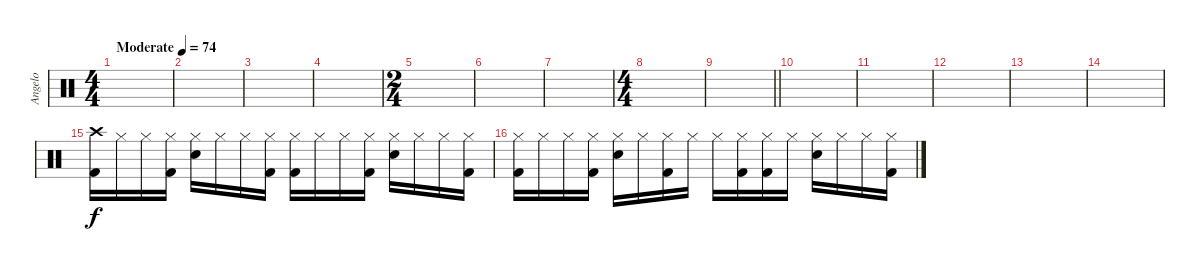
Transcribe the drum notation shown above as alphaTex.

\track ("Angelo" "Angelo") {instrument percussion}
\staff {score}
\articulation defaults
\ts (4 4)
\tempo (74 "Moderate")
\clef neutral
\ks c
|
|
|
|
\ts (2 4)
|
|
|
\ts (4 4)
|
\barLineRight lightlight
|
|
|
|
|
|
("Crash high (hit)" "Kick (hit) 2").16 "Hi-Hat (closed)".16 "Hi-Hat (closed)".16 ("Hi-Hat (closed)" "Kick (hit) 2").16 ("Hi-Hat (closed)" "Snare (hit) 2").16 "Hi-Hat (closed)".16 "Hi-Hat (closed)".16 ("Hi-Hat (closed)" "Kick (hit) 2").16 ("Hi-Hat (closed)" "Kick (hit) 2").16 "Hi-Hat (closed)".16 "Hi-Hat (closed)".16 ("Hi-Hat (closed)" "Kick (hit) 2").16 ("Hi-Hat (closed)" "Snare (hit) 2").16 "Hi-Hat (closed)".16 "Hi-Hat (closed)".16 ("Hi-Hat (closed)" "Kick (hit) 2").16 |
("Hi-Hat (closed)" "Kick (hit) 2").16 "Hi-Hat (closed)".16 "Hi-Hat (closed)".16 ("Hi-Hat (closed)" "Kick (hit) 2").16 ("Hi-Hat (closed)" "Snare (hit) 2").16 "Hi-Hat (closed)".16 ("Hi-Hat (closed)" "Kick (hit) 2").16 "Hi-Hat (closed)".16 "Hi-Hat (closed)".16 ("Hi-Hat (closed)" "Kick (hit) 2").16 ("Hi-Hat (closed)" "Kick (hit) 2").16 "Hi-Hat (closed)".16 ("Hi-Hat (closed)" "Snare (hit) 2").16 "Hi-Hat (closed)".16 "Hi-Hat (closed)".16 ("Hi-Hat (closed)" "Kick (hit) 2").16
